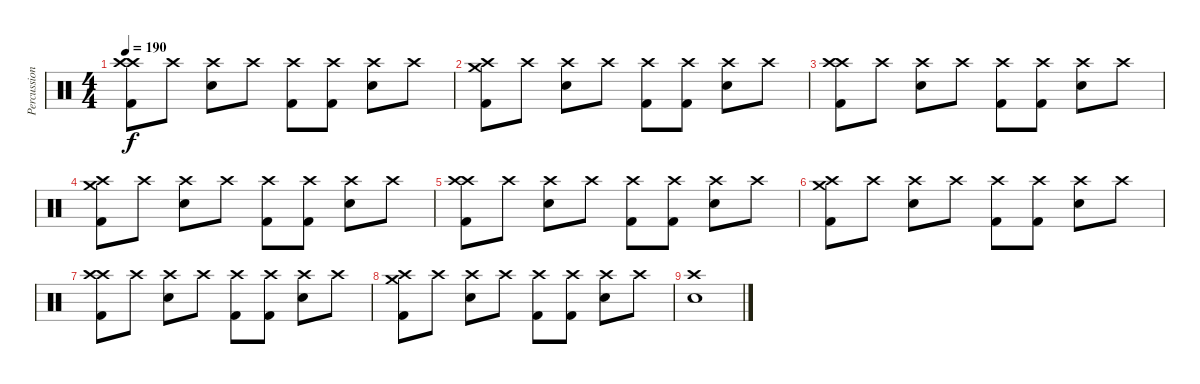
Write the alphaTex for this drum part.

\track ("Percussion" "Percussion") {instrument percussion}
\staff {score}
\articulation defaults
\ts (4 4)
\tempo 190
\clef neutral
\ks c
("Crash high (hit)" "Crash high (hit)" "Kick (hit) 2").8{dy f} "Crash high (hit)".8 ("Crash high (hit)" "Snare (hit) 2").8 "Crash high (hit)".8 ("Crash high (hit)" "Kick (hit) 2").8 ("Crash high (hit)" "Kick (hit) 2").8 ("Crash high (hit)" "Snare (hit) 2").8 "Crash high (hit)".8 |
("Crash medium (hit)" "Crash high (hit)" "Kick (hit) 2").8 "Crash high (hit)".8 ("Crash high (hit)" "Snare (hit) 2").8 "Crash high (hit)".8 ("Crash high (hit)" "Kick (hit) 2").8 ("Crash high (hit)" "Kick (hit) 2").8 ("Crash high (hit)" "Snare (hit) 2").8 "Crash high (hit)".8 |
("Crash high (hit)" "Crash high (hit)" "Kick (hit) 2").8 "Crash high (hit)".8 ("Crash high (hit)" "Snare (hit) 2").8 "Crash high (hit)".8 ("Crash high (hit)" "Kick (hit) 2").8 ("Crash high (hit)" "Kick (hit) 2").8 ("Crash high (hit)" "Snare (hit) 2").8 "Crash high (hit)".8 |
("Crash medium (hit)" "Crash high (hit)" "Kick (hit) 2").8 "Crash high (hit)".8 ("Crash high (hit)" "Snare (hit) 2").8 "Crash high (hit)".8 ("Crash high (hit)" "Kick (hit) 2").8 ("Crash high (hit)" "Kick (hit) 2").8 ("Crash high (hit)" "Snare (hit) 2").8 "Crash high (hit)".8 |
("Crash high (hit)" "Crash high (hit)" "Kick (hit) 2").8 "Crash high (hit)".8 ("Crash high (hit)" "Snare (hit) 2").8 "Crash high (hit)".8 ("Crash high (hit)" "Kick (hit) 2").8 ("Crash high (hit)" "Kick (hit) 2").8 ("Crash high (hit)" "Snare (hit) 2").8 "Crash high (hit)".8 |
("Crash medium (hit)" "Crash high (hit)" "Kick (hit) 2").8 "Crash high (hit)".8 ("Crash high (hit)" "Snare (hit) 2").8 "Crash high (hit)".8 ("Crash high (hit)" "Kick (hit) 2").8 ("Crash high (hit)" "Kick (hit) 2").8 ("Crash high (hit)" "Snare (hit) 2").8 "Crash high (hit)".8 |
("Crash high (hit)" "Crash high (hit)" "Kick (hit) 2").8 "Crash high (hit)".8 ("Crash high (hit)" "Snare (hit) 2").8 "Crash high (hit)".8 ("Crash high (hit)" "Kick (hit) 2").8 ("Crash high (hit)" "Kick (hit) 2").8 ("Crash high (hit)" "Snare (hit) 2").8 "Crash high (hit)".8 |
("Crash medium (hit)" "Crash high (hit)" "Kick (hit) 2").8 "Crash high (hit)".8 ("Crash high (hit)" "Snare (hit) 2").8 "Crash high (hit)".8 ("Crash high (hit)" "Kick (hit) 2").8 ("Crash high (hit)" "Kick (hit) 2").8 ("Crash high (hit)" "Snare (hit) 2").8 "Crash high (hit)".8 |
("Crash high (hit)" "Snare (hit) 2").1
